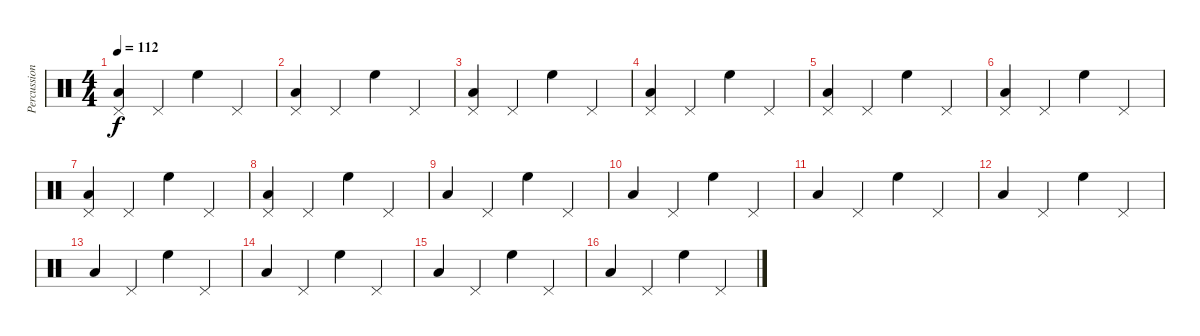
\track ("Percussion" "Percussion") {instrument percussion}
\staff {score}
\articulation defaults
\ts (4 4)
\tempo 112
\clef neutral
\ks c
("Low Floor Tom (hit)" "Pedal Hi-Hat (hit)").4{dy f} "Pedal Hi-Hat (hit)".4 "High Floor Tom (hit)".4 "Pedal Hi-Hat (hit)".4 |
("Low Floor Tom (hit)" "Pedal Hi-Hat (hit)").4 "Pedal Hi-Hat (hit)".4 "High Floor Tom (hit)".4 "Pedal Hi-Hat (hit)".4 |
("Low Floor Tom (hit)" "Pedal Hi-Hat (hit)").4 "Pedal Hi-Hat (hit)".4 "High Floor Tom (hit)".4 "Pedal Hi-Hat (hit)".4 |
("Low Floor Tom (hit)" "Pedal Hi-Hat (hit)").4 "Pedal Hi-Hat (hit)".4 "High Floor Tom (hit)".4 "Pedal Hi-Hat (hit)".4 |
("Low Floor Tom (hit)" "Pedal Hi-Hat (hit)").4 "Pedal Hi-Hat (hit)".4 "High Floor Tom (hit)".4 "Pedal Hi-Hat (hit)".4 |
("Low Floor Tom (hit)" "Pedal Hi-Hat (hit)").4 "Pedal Hi-Hat (hit)".4 "High Floor Tom (hit)".4 "Pedal Hi-Hat (hit)".4 |
("Low Floor Tom (hit)" "Pedal Hi-Hat (hit)").4 "Pedal Hi-Hat (hit)".4 "High Floor Tom (hit)".4 "Pedal Hi-Hat (hit)".4 |
("Low Floor Tom (hit)" "Pedal Hi-Hat (hit)").4 "Pedal Hi-Hat (hit)".4 "High Floor Tom (hit)".4 "Pedal Hi-Hat (hit)".4 |
"Low Floor Tom (hit)".4 "Pedal Hi-Hat (hit)".4 "High Floor Tom (hit)".4 "Pedal Hi-Hat (hit)".4 |
"Low Floor Tom (hit)".4 "Pedal Hi-Hat (hit)".4 "High Floor Tom (hit)".4 "Pedal Hi-Hat (hit)".4 |
"Low Floor Tom (hit)".4 "Pedal Hi-Hat (hit)".4 "High Floor Tom (hit)".4 "Pedal Hi-Hat (hit)".4 |
"Low Floor Tom (hit)".4 "Pedal Hi-Hat (hit)".4 "High Floor Tom (hit)".4 "Pedal Hi-Hat (hit)".4 |
"Low Floor Tom (hit)".4 "Pedal Hi-Hat (hit)".4 "High Floor Tom (hit)".4 "Pedal Hi-Hat (hit)".4 |
"Low Floor Tom (hit)".4 "Pedal Hi-Hat (hit)".4 "High Floor Tom (hit)".4 "Pedal Hi-Hat (hit)".4 |
"Low Floor Tom (hit)".4 "Pedal Hi-Hat (hit)".4 "High Floor Tom (hit)".4 "Pedal Hi-Hat (hit)".4 |
"Low Floor Tom (hit)".4 "Pedal Hi-Hat (hit)".4 "High Floor Tom (hit)".4 "Pedal Hi-Hat (hit)".4
